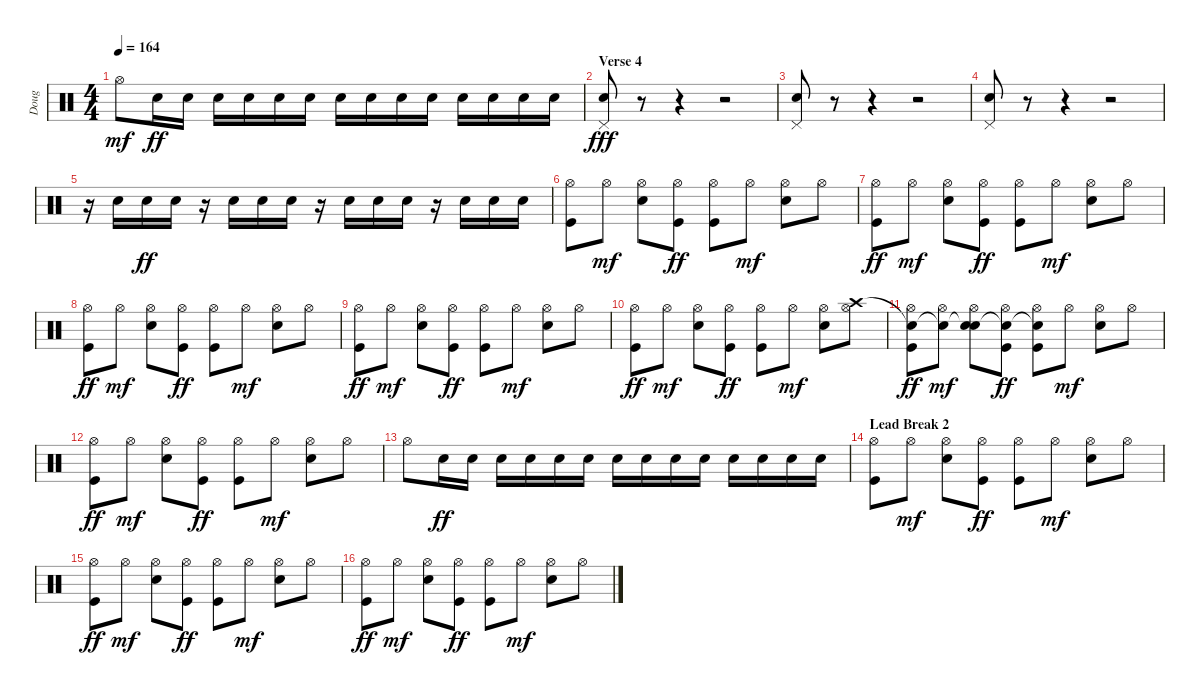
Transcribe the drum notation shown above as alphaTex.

\track ("Doug" "Doug") {instrument percussion}
\staff {score}
\articulation defaults
\ts (4 4)
\tempo 164
\clef neutral
\ks c "Hi-Hat (open)".8{dy mf} "Electric Snare (hit)".16{dy ff} "Electric Snare (hit)".16 "Electric Snare (hit)".16 "Electric Snare (hit)".16 "Electric Snare (hit)".16 "Electric Snare (hit)".16 "Electric Snare (hit)".16 "Electric Snare (hit)".16 "Electric Snare (hit)".16 "Electric Snare (hit)".16 "Electric Snare (hit)".16 "Electric Snare (hit)".16 "Electric Snare (hit)".16 "Electric Snare (hit)".16
|
\section ("" "Verse 4")
("Pedal Hi-Hat (hit)" "Electric Snare (hit)").8{dy fff} r.8 r.4 r.2 |
("Pedal Hi-Hat (hit)" "Electric Snare (hit)").8 r.8 r.4 r.2 |
("Pedal Hi-Hat (hit)" "Electric Snare (hit)").8 r.8 r.4 r.2 |
r.16 "Electric Snare (hit)".16 "Electric Snare (hit)".16{dy ff} "Electric Snare (hit)".16 r.16 "Electric Snare (hit)".16 "Electric Snare (hit)".16 "Electric Snare (hit)".16 r.16 "Electric Snare (hit)".16 "Electric Snare (hit)".16 "Electric Snare (hit)".16 r.16 "Electric Snare (hit)".16 "Electric Snare (hit)".16 "Electric Snare (hit)".16 |
("Hi-Hat (open)" "Kick (hit)").8 "Hi-Hat (open)".8{dy mf} ("Hi-Hat (open)" "Electric Snare (hit)").8 ("Hi-Hat (open)" "Kick (hit)").8{dy ff} ("Hi-Hat (open)" "Kick (hit)").8 "Hi-Hat (open)".8{dy mf} ("Hi-Hat (open)" "Electric Snare (hit)").8 "Hi-Hat (open)".8 |
("Hi-Hat (open)" "Kick (hit)").8{dy ff} "Hi-Hat (open)".8{dy mf} ("Hi-Hat (open)" "Electric Snare (hit)").8 ("Hi-Hat (open)" "Kick (hit)").8{dy ff} ("Hi-Hat (open)" "Kick (hit)").8 "Hi-Hat (open)".8{dy mf} ("Hi-Hat (open)" "Electric Snare (hit)").8 "Hi-Hat (open)".8 |
("Hi-Hat (open)" "Kick (hit)").8{dy ff} "Hi-Hat (open)".8{dy mf} ("Hi-Hat (open)" "Electric Snare (hit)").8 ("Hi-Hat (open)" "Kick (hit)").8{dy ff} ("Hi-Hat (open)" "Kick (hit)").8 "Hi-Hat (open)".8{dy mf} ("Hi-Hat (open)" "Electric Snare (hit)").8 "Hi-Hat (open)".8 |
("Hi-Hat (open)" "Kick (hit)").8{dy ff} "Hi-Hat (open)".8{dy mf} ("Hi-Hat (open)" "Electric Snare (hit)").8 ("Hi-Hat (open)" "Kick (hit)").8{dy ff} ("Hi-Hat (open)" "Kick (hit)").8 "Hi-Hat (open)".8{dy mf} ("Hi-Hat (open)" "Electric Snare (hit)").8 "Hi-Hat (open)".8 |
("Hi-Hat (open)" "Kick (hit)").8{dy ff} "Hi-Hat (open)".8{dy mf} ("Hi-Hat (open)" "Electric Snare (hit)").8 ("Hi-Hat (open)" "Kick (hit)").8{dy ff} ("Hi-Hat (open)" "Kick (hit)").8 "Hi-Hat (open)".8{dy mf} ("Hi-Hat (open)" "Electric Snare (hit)").8 ("Crash high (hit)" "Hi-Hat (open)").8 |
("Snare (hit)"{t} "Hi-Hat (open)" "Kick (hit)").8{dy ff} ("Snare (hit)"{t} "Hi-Hat (open)").8{dy mf} ("Snare (hit)"{t} "Hi-Hat (open)" "Electric Snare (hit)").8 ("Snare (hit)"{t} "Hi-Hat (open)" "Kick (hit)").8{dy ff} ("Snare (hit)"{t} "Hi-Hat (open)" "Kick (hit)").8 "Hi-Hat (open)".8{dy mf} ("Hi-Hat (open)" "Electric Snare (hit)").8 "Hi-Hat (open)".8 |
("Hi-Hat (open)" "Kick (hit)").8{dy ff} "Hi-Hat (open)".8{dy mf} ("Hi-Hat (open)" "Electric Snare (hit)").8 ("Hi-Hat (open)" "Kick (hit)").8{dy ff} ("Hi-Hat (open)" "Kick (hit)").8 "Hi-Hat (open)".8{dy mf} ("Hi-Hat (open)" "Electric Snare (hit)").8 "Hi-Hat (open)".8 |
"Hi-Hat (open)".8 "Electric Snare (hit)".16{dy ff} "Electric Snare (hit)".16 "Electric Snare (hit)".16 "Electric Snare (hit)".16 "Electric Snare (hit)".16 "Electric Snare (hit)".16 "Electric Snare (hit)".16 "Electric Snare (hit)".16 "Electric Snare (hit)".16 "Electric Snare (hit)".16 "Electric Snare (hit)".16 "Electric Snare (hit)".16 "Electric Snare (hit)".16 "Electric Snare (hit)".16 |
\section ("" "Lead Break 2")
("Hi-Hat (open)" "Kick (hit)").8 "Hi-Hat (open)".8{dy mf} ("Hi-Hat (open)" "Electric Snare (hit)").8 ("Hi-Hat (open)" "Kick (hit)").8{dy ff} ("Hi-Hat (open)" "Kick (hit)").8 "Hi-Hat (open)".8{dy mf} ("Hi-Hat (open)" "Electric Snare (hit)").8 "Hi-Hat (open)".8 |
("Hi-Hat (open)" "Kick (hit)").8{dy ff} "Hi-Hat (open)".8{dy mf} ("Hi-Hat (open)" "Electric Snare (hit)").8 ("Hi-Hat (open)" "Kick (hit)").8{dy ff} ("Hi-Hat (open)" "Kick (hit)").8 "Hi-Hat (open)".8{dy mf} ("Hi-Hat (open)" "Electric Snare (hit)").8 "Hi-Hat (open)".8 |
("Hi-Hat (open)" "Kick (hit)").8{dy ff} "Hi-Hat (open)".8{dy mf} ("Hi-Hat (open)" "Electric Snare (hit)").8 ("Hi-Hat (open)" "Kick (hit)").8{dy ff} ("Hi-Hat (open)" "Kick (hit)").8 "Hi-Hat (open)".8{dy mf} ("Hi-Hat (open)" "Electric Snare (hit)").8 "Hi-Hat (open)".8
